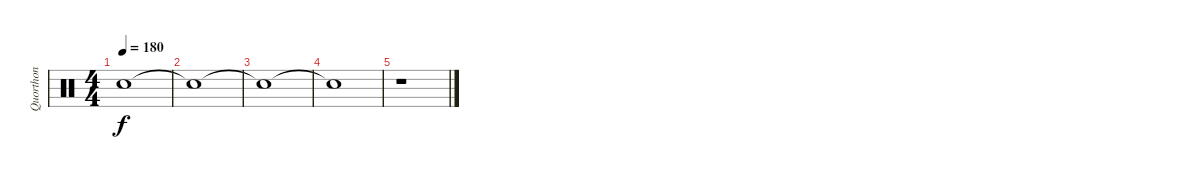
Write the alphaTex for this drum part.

\track ("Quorthon" "Quorthon") {instrument percussion}
\staff {score}
\articulation defaults
\ts (4 4)
\tempo 180
\clef neutral
\ks c "Snare (hit)"{t}.1{dy f}
|
"Snare (hit)"{t}.1{volume 8} |
"Snare (hit)"{t}.1{volume 4} |
"Snare (hit)"{t}.1{volume 2} |
r.1
